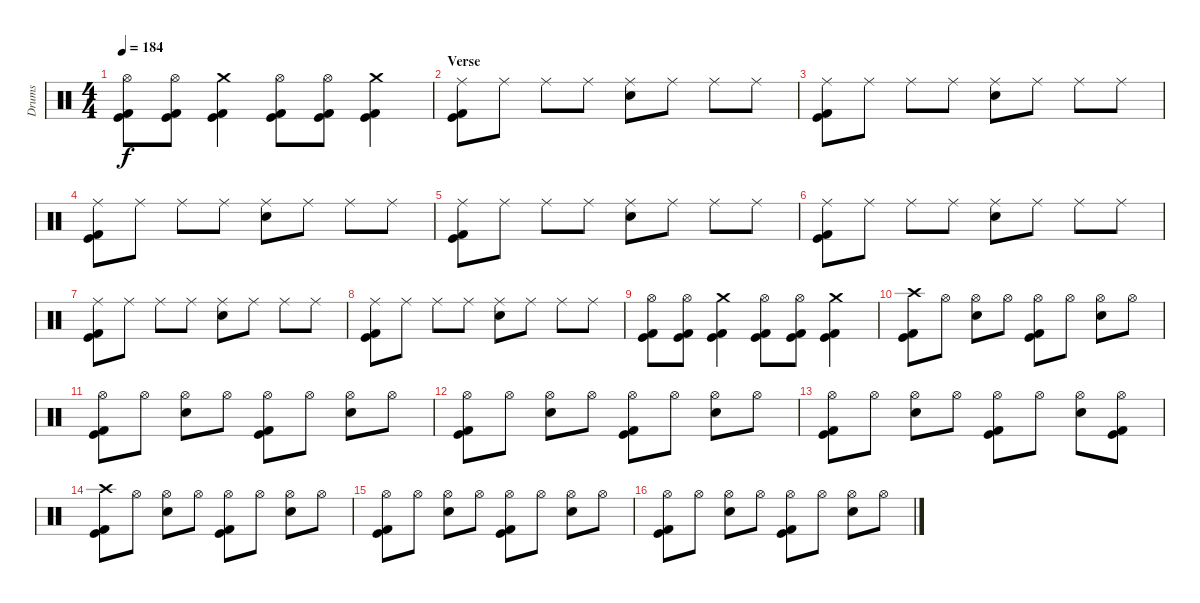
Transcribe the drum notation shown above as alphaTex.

\track ("Drums" "Drums") {instrument percussion}
\staff {score}
\articulation defaults
\ts (4 4)
\tempo 184
\clef neutral
\ks c
("Hi-Hat (open)" "Kick (hit)" "Kick (hit) 2").8{dy f} ("Hi-Hat (open)" "Kick (hit)" "Kick (hit) 2").8 ("Crash medium (hit)" "Kick (hit)" "Kick (hit) 2").4 ("Hi-Hat (open)" "Kick (hit)" "Kick (hit) 2").8 ("Hi-Hat (open)" "Kick (hit)" "Kick (hit) 2").8 ("Crash medium (hit)" "Kick (hit)" "Kick (hit) 2").4 |
\section ("" "Verse")
("Ride (middle)" "Kick (hit)" "Kick (hit) 2").8 "Ride (middle)".8 "Ride (middle)".8 "Ride (middle)".8 ("Ride (middle)" "Electric Snare (hit)").8 "Ride (middle)".8 "Ride (middle)".8 "Ride (middle)".8 |
("Ride (middle)" "Kick (hit)" "Kick (hit) 2").8 "Ride (middle)".8 "Ride (middle)".8 "Ride (middle)".8 ("Ride (middle)" "Electric Snare (hit)").8 "Ride (middle)".8 "Ride (middle)".8 "Ride (middle)".8 |
("Ride (middle)" "Kick (hit)" "Kick (hit) 2").8 "Ride (middle)".8 "Ride (middle)".8 "Ride (middle)".8 ("Ride (middle)" "Electric Snare (hit)").8 "Ride (middle)".8 "Ride (middle)".8 "Ride (middle)".8 |
("Ride (middle)" "Kick (hit)" "Kick (hit) 2").8 "Ride (middle)".8 "Ride (middle)".8 "Ride (middle)".8 ("Ride (middle)" "Electric Snare (hit)").8 "Ride (middle)".8 "Ride (middle)".8 "Ride (middle)".8 |
("Ride (middle)" "Kick (hit)" "Kick (hit) 2").8 "Ride (middle)".8 "Ride (middle)".8 "Ride (middle)".8 ("Ride (middle)" "Electric Snare (hit)").8 "Ride (middle)".8 "Ride (middle)".8 "Ride (middle)".8 |
("Ride (middle)" "Kick (hit)" "Kick (hit) 2").8 "Ride (middle)".8 "Ride (middle)".8 "Ride (middle)".8 ("Ride (middle)" "Electric Snare (hit)").8 "Ride (middle)".8 "Ride (middle)".8 "Ride (middle)".8 |
("Ride (middle)" "Kick (hit)" "Kick (hit) 2").8 "Ride (middle)".8 "Ride (middle)".8 "Ride (middle)".8 ("Ride (middle)" "Electric Snare (hit)").8 "Ride (middle)".8 "Ride (middle)".8 "Ride (middle)".8 |
("Hi-Hat (open)" "Kick (hit)" "Kick (hit) 2").8 ("Hi-Hat (open)" "Kick (hit)" "Kick (hit) 2").8 ("Crash medium (hit)" "Kick (hit)" "Kick (hit) 2").4 ("Hi-Hat (open)" "Kick (hit)" "Kick (hit) 2").8 ("Hi-Hat (open)" "Kick (hit)" "Kick (hit) 2").8 ("Crash medium (hit)" "Kick (hit)" "Kick (hit) 2").4 |
("Crash high (hit)" "Kick (hit)" "Kick (hit) 2").8 "Hi-Hat (open)".8 ("Hi-Hat (open)" "Electric Snare (hit)").8 "Hi-Hat (open)".8 ("Hi-Hat (open)" "Kick (hit)" "Kick (hit) 2").8 "Hi-Hat (open)".8 ("Hi-Hat (open)" "Electric Snare (hit)").8 "Hi-Hat (open)".8 |
("Hi-Hat (open)" "Kick (hit)" "Kick (hit) 2").8 "Hi-Hat (open)".8 ("Hi-Hat (open)" "Electric Snare (hit)").8 "Hi-Hat (open)".8 ("Hi-Hat (open)" "Kick (hit)" "Kick (hit) 2").8 "Hi-Hat (open)".8 ("Hi-Hat (open)" "Electric Snare (hit)").8 "Hi-Hat (open)".8 |
("Hi-Hat (open)" "Kick (hit)" "Kick (hit) 2").8 "Hi-Hat (open)".8 ("Hi-Hat (open)" "Electric Snare (hit)").8 "Hi-Hat (open)".8 ("Hi-Hat (open)" "Kick (hit)" "Kick (hit) 2").8 "Hi-Hat (open)".8 ("Hi-Hat (open)" "Electric Snare (hit)").8 "Hi-Hat (open)".8 |
("Hi-Hat (open)" "Kick (hit)" "Kick (hit) 2").8 "Hi-Hat (open)".8 ("Hi-Hat (open)" "Electric Snare (hit)").8 "Hi-Hat (open)".8 ("Hi-Hat (open)" "Kick (hit)" "Kick (hit) 2").8 "Hi-Hat (open)".8 ("Hi-Hat (open)" "Electric Snare (hit)").8 ("Hi-Hat (open)" "Kick (hit)" "Kick (hit) 2").8 |
("Crash high (hit)" "Kick (hit)" "Kick (hit) 2").8 "Hi-Hat (open)".8 ("Hi-Hat (open)" "Electric Snare (hit)").8 "Hi-Hat (open)".8 ("Hi-Hat (open)" "Kick (hit)" "Kick (hit) 2").8 "Hi-Hat (open)".8 ("Hi-Hat (open)" "Electric Snare (hit)").8 "Hi-Hat (open)".8 |
("Hi-Hat (open)" "Kick (hit)" "Kick (hit) 2").8 "Hi-Hat (open)".8 ("Hi-Hat (open)" "Electric Snare (hit)").8 "Hi-Hat (open)".8 ("Hi-Hat (open)" "Kick (hit)" "Kick (hit) 2").8 "Hi-Hat (open)".8 ("Hi-Hat (open)" "Electric Snare (hit)").8 "Hi-Hat (open)".8 |
("Hi-Hat (open)" "Kick (hit)" "Kick (hit) 2").8 "Hi-Hat (open)".8 ("Hi-Hat (open)" "Electric Snare (hit)").8 "Hi-Hat (open)".8 ("Hi-Hat (open)" "Kick (hit)" "Kick (hit) 2").8 "Hi-Hat (open)".8 ("Hi-Hat (open)" "Electric Snare (hit)").8 "Hi-Hat (open)".8
